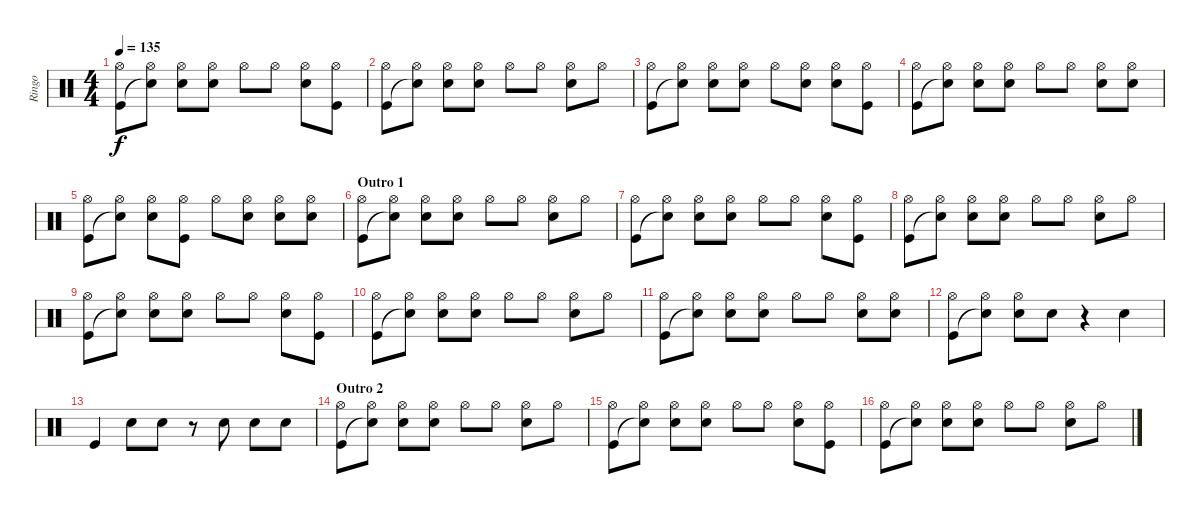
\track ("Ringo" "Ringo") {instrument percussion}
\staff {score}
\articulation defaults
\ts (4 4)
\tempo 135
\clef neutral
\ks c
("Hi-Hat (open)" "Kick (hit)").8{dy f} ("Hi-Hat (open)" "Snare (hit)"{t}).8 ("Hi-Hat (open)" "Snare (hit) 2").8 ("Hi-Hat (open)" "Snare (hit) 2").8 "Hi-Hat (open)".8 "Hi-Hat (open)".8 ("Hi-Hat (open)" "Snare (hit) 2").8 ("Hi-Hat (open)" "Kick (hit)").8 |
("Hi-Hat (open)" "Kick (hit)").8 ("Hi-Hat (open)" "Snare (hit)"{t}).8 ("Hi-Hat (open)" "Snare (hit) 2").8 ("Hi-Hat (open)" "Snare (hit) 2").8 "Hi-Hat (open)".8 "Hi-Hat (open)".8 ("Hi-Hat (open)" "Snare (hit) 2").8 "Hi-Hat (open)".8 |
("Hi-Hat (open)" "Kick (hit)").8 ("Hi-Hat (open)" "Snare (hit)"{t}).8 ("Hi-Hat (open)" "Snare (hit) 2").8 ("Hi-Hat (open)" "Snare (hit) 2").8 "Hi-Hat (open)".8 ("Hi-Hat (open)" "Snare (hit) 2").8 ("Hi-Hat (open)" "Snare (hit) 2").8 ("Hi-Hat (open)" "Kick (hit)").8 |
("Hi-Hat (open)" "Kick (hit)").8 ("Hi-Hat (open)" "Snare (hit)"{t}).8 ("Hi-Hat (open)" "Snare (hit) 2").8 ("Hi-Hat (open)" "Snare (hit) 2").8 "Hi-Hat (open)".8 "Hi-Hat (open)".8 ("Hi-Hat (open)" "Snare (hit) 2").8 ("Hi-Hat (open)" "Snare (hit)").8 |
("Hi-Hat (open)" "Kick (hit)").8 ("Hi-Hat (open)" "Snare (hit)"{t}).8 ("Hi-Hat (open)" "Snare (hit) 2").8 ("Hi-Hat (open)" "Kick (hit)").8 "Hi-Hat (open)".8 ("Hi-Hat (open)" "Snare (hit) 2").8 ("Hi-Hat (open)" "Snare (hit) 2").8 ("Hi-Hat (open)" "Snare (hit) 2").8 |
\section ("" "Outro 1")
("Hi-Hat (open)" "Kick (hit)").8 ("Hi-Hat (open)" "Snare (hit)"{t}).8 ("Hi-Hat (open)" "Snare (hit) 2").8 ("Hi-Hat (open)" "Snare (hit) 2").8 "Hi-Hat (open)".8 "Hi-Hat (open)".8 ("Hi-Hat (open)" "Snare (hit) 2").8 "Hi-Hat (open)".8 |
("Hi-Hat (open)" "Kick (hit)").8 ("Hi-Hat (open)" "Snare (hit)"{t}).8 ("Hi-Hat (open)" "Snare (hit) 2").8 ("Hi-Hat (open)" "Snare (hit) 2").8 "Hi-Hat (open)".8 "Hi-Hat (open)".8 ("Hi-Hat (open)" "Snare (hit) 2").8 ("Hi-Hat (open)" "Kick (hit)").8 |
("Hi-Hat (open)" "Kick (hit)").8 ("Hi-Hat (open)" "Snare (hit)"{t}).8 ("Hi-Hat (open)" "Snare (hit) 2").8 ("Hi-Hat (open)" "Snare (hit) 2").8 "Hi-Hat (open)".8 "Hi-Hat (open)".8 ("Hi-Hat (open)" "Snare (hit) 2").8 "Hi-Hat (open)".8 |
("Hi-Hat (open)" "Kick (hit)").8 ("Hi-Hat (open)" "Snare (hit)"{t}).8 ("Hi-Hat (open)" "Snare (hit) 2").8 ("Hi-Hat (open)" "Snare (hit) 2").8 "Hi-Hat (open)".8 "Hi-Hat (open)".8 ("Hi-Hat (open)" "Snare (hit) 2").8 ("Hi-Hat (open)" "Kick (hit)").8 |
("Hi-Hat (open)" "Kick (hit)").8 ("Hi-Hat (open)" "Snare (hit)"{t}).8 ("Hi-Hat (open)" "Snare (hit) 2").8 ("Hi-Hat (open)" "Snare (hit) 2").8 "Hi-Hat (open)".8 "Hi-Hat (open)".8 ("Hi-Hat (open)" "Snare (hit) 2").8 "Hi-Hat (open)".8 |
("Hi-Hat (open)" "Kick (hit)").8 ("Hi-Hat (open)" "Snare (hit)"{t}).8 ("Hi-Hat (open)" "Snare (hit) 2").8 ("Hi-Hat (open)" "Snare (hit) 2").8 "Hi-Hat (open)".8 "Hi-Hat (open)".8 ("Hi-Hat (open)" "Snare (hit) 2").8 ("Hi-Hat (open)" "Snare (hit) 2").8 |
("Hi-Hat (open)" "Kick (hit)").8 ("Hi-Hat (open)" "Snare (hit)"{t}).8 ("Hi-Hat (open)" "Snare (hit) 2").8 "Snare (hit) 2".8 r.4 "Snare (hit) 2".4 |
"Kick (hit)".4 "Snare (hit) 2".8 "Snare (hit) 2".8 r.8 "Snare (hit) 2".8 "Snare (hit) 2".8 "Snare (hit) 2".8 |
\section ("" "Outro 2")
("Hi-Hat (open)" "Kick (hit)").8 ("Hi-Hat (open)" "Snare (hit)"{t}).8 ("Hi-Hat (open)" "Snare (hit) 2").8 ("Hi-Hat (open)" "Snare (hit) 2").8 "Hi-Hat (open)".8 "Hi-Hat (open)".8 ("Hi-Hat (open)" "Snare (hit) 2").8 "Hi-Hat (open)".8 |
("Hi-Hat (open)" "Kick (hit)").8 ("Hi-Hat (open)" "Snare (hit)"{t}).8 ("Hi-Hat (open)" "Snare (hit) 2").8 ("Hi-Hat (open)" "Snare (hit) 2").8 "Hi-Hat (open)".8 "Hi-Hat (open)".8 ("Hi-Hat (open)" "Snare (hit) 2").8 ("Hi-Hat (open)" "Kick (hit)").8 |
("Hi-Hat (open)" "Kick (hit)").8 ("Hi-Hat (open)" "Snare (hit)"{t}).8 ("Hi-Hat (open)" "Snare (hit) 2").8 ("Hi-Hat (open)" "Snare (hit) 2").8 "Hi-Hat (open)".8 "Hi-Hat (open)".8 ("Hi-Hat (open)" "Snare (hit) 2").8 "Hi-Hat (open)".8
